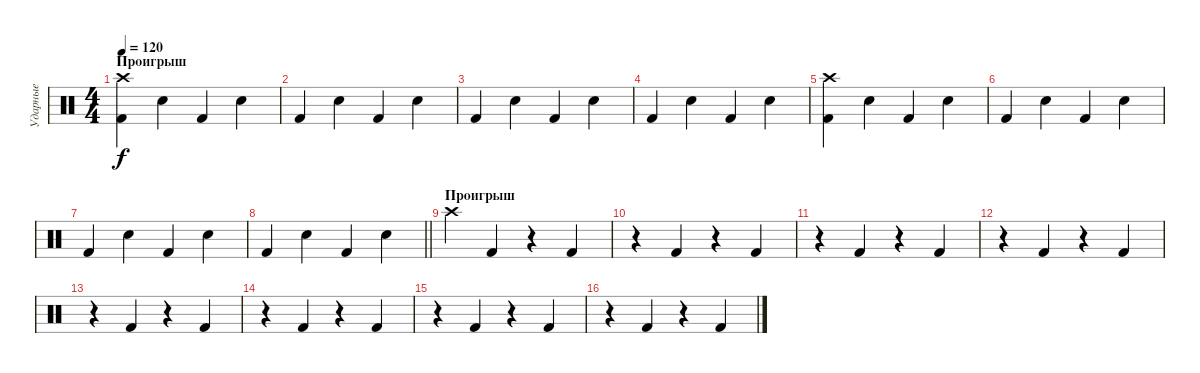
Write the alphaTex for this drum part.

\track ("Ударные" "Ударные") {instrument percussion}
\staff {score}
\articulation defaults
\ts (4 4)
\section ("" "Проигрыш")
\tempo 120
\clef neutral
\ks c
("Kick (hit) 2" "Crash high (hit)").4{dy f} "Electric Snare (hit)".4 "Kick (hit) 2".4 "Electric Snare (hit)".4 |
"Kick (hit) 2".4 "Electric Snare (hit)".4 "Kick (hit) 2".4 "Electric Snare (hit)".4 |
"Kick (hit) 2".4 "Electric Snare (hit)".4 "Kick (hit) 2".4 "Electric Snare (hit)".4 |
"Kick (hit) 2".4 "Electric Snare (hit)".4 "Kick (hit) 2".4 "Electric Snare (hit)".4 |
("Kick (hit) 2" "Crash high (hit)").4 "Electric Snare (hit)".4 "Kick (hit) 2".4 "Electric Snare (hit)".4 |
"Kick (hit) 2".4 "Electric Snare (hit)".4 "Kick (hit) 2".4 "Electric Snare (hit)".4 |
"Kick (hit) 2".4 "Electric Snare (hit)".4 "Kick (hit) 2".4 "Electric Snare (hit)".4 |
\barLineRight lightlight "Kick (hit) 2".4 "Electric Snare (hit)".4 "Kick (hit) 2".4 "Electric Snare (hit)".4
|
\section ("" "Проигрыш")
"Crash high (hit)".4 "Kick (hit) 2".4 r.4 "Kick (hit) 2".4 |
r.4 "Kick (hit) 2".4 r.4 "Kick (hit) 2".4 |
r.4 "Kick (hit) 2".4 r.4 "Kick (hit) 2".4 |
r.4 "Kick (hit) 2".4 r.4 "Kick (hit) 2".4 |
r.4 "Kick (hit) 2".4 r.4 "Kick (hit) 2".4 |
r.4 "Kick (hit) 2".4 r.4 "Kick (hit) 2".4 |
r.4 "Kick (hit) 2".4 r.4 "Kick (hit) 2".4 |
r.4 "Kick (hit) 2".4 r.4 "Kick (hit) 2".4
